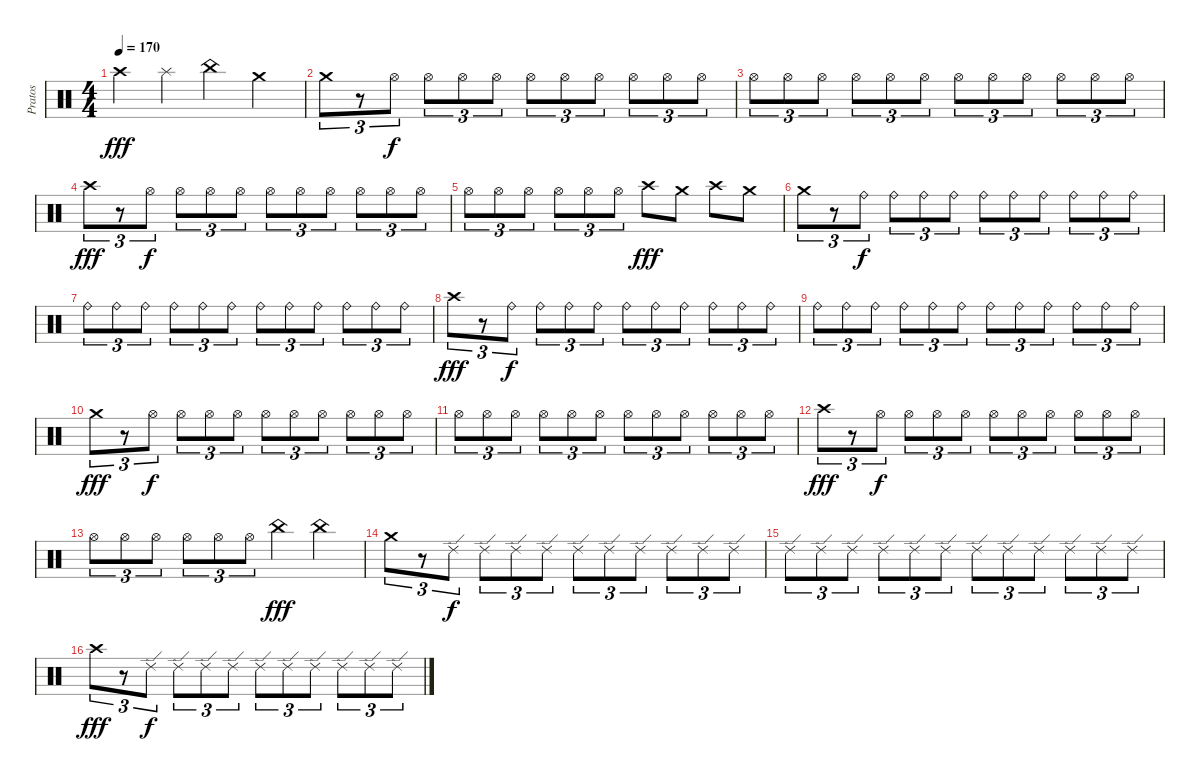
\track ("Pratos" "Pratos") {instrument percussion}
\staff {score}
\articulation defaults
\ts (4 4)
\tempo 170
\clef neutral
\ks c "Crash high (hit)".4{dy fff} "Splash (hit)".4 "China (hit)".4 "Crash medium (hit)".4
|
"Crash medium (hit)".8{tu (3 2)} r.8{tu (3 2)} "Hi-Hat (open)".8{tu (3 2) dy f} "Hi-Hat (open)".8{tu (3 2)} "Hi-Hat (open)".8{tu (3 2)} "Hi-Hat (open)".8{tu (3 2)} "Hi-Hat (open)".8{tu (3 2)} "Hi-Hat (open)".8{tu (3 2)} "Hi-Hat (open)".8{tu (3 2)} "Hi-Hat (open)".8{tu (3 2)} "Hi-Hat (open)".8{tu (3 2)} "Hi-Hat (open)".8{tu (3 2)} |
"Hi-Hat (open)".8{tu (3 2)} "Hi-Hat (open)".8{tu (3 2)} "Hi-Hat (open)".8{tu (3 2)} "Hi-Hat (open)".8{tu (3 2)} "Hi-Hat (open)".8{tu (3 2)} "Hi-Hat (open)".8{tu (3 2)} "Hi-Hat (open)".8{tu (3 2)} "Hi-Hat (open)".8{tu (3 2)} "Hi-Hat (open)".8{tu (3 2)} "Hi-Hat (open)".8{tu (3 2)} "Hi-Hat (open)".8{tu (3 2)} "Hi-Hat (open)".8{tu (3 2)} |
"Crash high (hit)".8{tu (3 2) dy fff} r.8{tu (3 2)} "Hi-Hat (open)".8{tu (3 2) dy f} "Hi-Hat (open)".8{tu (3 2)} "Hi-Hat (open)".8{tu (3 2)} "Hi-Hat (open)".8{tu (3 2)} "Hi-Hat (open)".8{tu (3 2)} "Hi-Hat (open)".8{tu (3 2)} "Hi-Hat (open)".8{tu (3 2)} "Hi-Hat (open)".8{tu (3 2)} "Hi-Hat (open)".8{tu (3 2)} "Hi-Hat (open)".8{tu (3 2)} |
"Hi-Hat (open)".8{tu (3 2)} "Hi-Hat (open)".8{tu (3 2)} "Hi-Hat (open)".8{tu (3 2)} "Hi-Hat (open)".8{tu (3 2)} "Hi-Hat (open)".8{tu (3 2)} "Hi-Hat (open)".8{tu (3 2)} "Crash high (hit)".8{dy fff} "Crash medium (hit)".8 "Crash high (hit)".8 "Crash medium (hit)".8 |
"Crash medium (hit)".8{tu (3 2)} r.8{tu (3 2)} "Ride (bell)".8{tu (3 2) dy f} "Ride (bell)".8{tu (3 2)} "Ride (bell)".8{tu (3 2)} "Ride (bell)".8{tu (3 2)} "Ride (bell)".8{tu (3 2)} "Ride (bell)".8{tu (3 2)} "Ride (bell)".8{tu (3 2)} "Ride (bell)".8{tu (3 2)} "Ride (bell)".8{tu (3 2)} "Ride (bell)".8{tu (3 2)} |
"Ride (bell)".8{tu (3 2)} "Ride (bell)".8{tu (3 2)} "Ride (bell)".8{tu (3 2)} "Ride (bell)".8{tu (3 2)} "Ride (bell)".8{tu (3 2)} "Ride (bell)".8{tu (3 2)} "Ride (bell)".8{tu (3 2)} "Ride (bell)".8{tu (3 2)} "Ride (bell)".8{tu (3 2)} "Ride (bell)".8{tu (3 2)} "Ride (bell)".8{tu (3 2)} "Ride (bell)".8{tu (3 2)} |
"Crash high (hit)".8{tu (3 2) dy fff} r.8{tu (3 2)} "Ride (bell)".8{tu (3 2) dy f} "Ride (bell)".8{tu (3 2)} "Ride (bell)".8{tu (3 2)} "Ride (bell)".8{tu (3 2)} "Ride (bell)".8{tu (3 2)} "Ride (bell)".8{tu (3 2)} "Ride (bell)".8{tu (3 2)} "Ride (bell)".8{tu (3 2)} "Ride (bell)".8{tu (3 2)} "Ride (bell)".8{tu (3 2)} |
"Ride (bell)".8{tu (3 2)} "Ride (bell)".8{tu (3 2)} "Ride (bell)".8{tu (3 2)} "Ride (bell)".8{tu (3 2)} "Ride (bell)".8{tu (3 2)} "Ride (bell)".8{tu (3 2)} "Ride (bell)".8{tu (3 2)} "Ride (bell)".8{tu (3 2)} "Ride (bell)".8{tu (3 2)} "Ride (bell)".8{tu (3 2)} "Ride (bell)".8{tu (3 2)} "Ride (bell)".8{tu (3 2)} |
"Crash medium (hit)".8{tu (3 2) dy fff} r.8{tu (3 2)} "Hi-Hat (open)".8{tu (3 2) dy f} "Hi-Hat (open)".8{tu (3 2)} "Hi-Hat (open)".8{tu (3 2)} "Hi-Hat (open)".8{tu (3 2)} "Hi-Hat (open)".8{tu (3 2)} "Hi-Hat (open)".8{tu (3 2)} "Hi-Hat (open)".8{tu (3 2)} "Hi-Hat (open)".8{tu (3 2)} "Hi-Hat (open)".8{tu (3 2)} "Hi-Hat (open)".8{tu (3 2)} |
"Hi-Hat (open)".8{tu (3 2)} "Hi-Hat (open)".8{tu (3 2)} "Hi-Hat (open)".8{tu (3 2)} "Hi-Hat (open)".8{tu (3 2)} "Hi-Hat (open)".8{tu (3 2)} "Hi-Hat (open)".8{tu (3 2)} "Hi-Hat (open)".8{tu (3 2)} "Hi-Hat (open)".8{tu (3 2)} "Hi-Hat (open)".8{tu (3 2)} "Hi-Hat (open)".8{tu (3 2)} "Hi-Hat (open)".8{tu (3 2)} "Hi-Hat (open)".8{tu (3 2)} |
"Crash high (hit)".8{tu (3 2) dy fff} r.8{tu (3 2)} "Hi-Hat (open)".8{tu (3 2) dy f} "Hi-Hat (open)".8{tu (3 2)} "Hi-Hat (open)".8{tu (3 2)} "Hi-Hat (open)".8{tu (3 2)} "Hi-Hat (open)".8{tu (3 2)} "Hi-Hat (open)".8{tu (3 2)} "Hi-Hat (open)".8{tu (3 2)} "Hi-Hat (open)".8{tu (3 2)} "Hi-Hat (open)".8{tu (3 2)} "Hi-Hat (open)".8{tu (3 2)} |
"Hi-Hat (open)".8{tu (3 2)} "Hi-Hat (open)".8{tu (3 2)} "Hi-Hat (open)".8{tu (3 2)} "Hi-Hat (open)".8{tu (3 2)} "Hi-Hat (open)".8{tu (3 2)} "Hi-Hat (open)".8{tu (3 2)} "China (hit)".4{dy fff} "China (hit)".4 |
"Crash medium (hit)".8{tu (3 2)} r.8{tu (3 2)} "Ride (edge) 2".8{tu (3 2) dy f} "Ride (edge) 2".8{tu (3 2)} "Ride (edge) 2".8{tu (3 2)} "Ride (edge) 2".8{tu (3 2)} "Ride (edge) 2".8{tu (3 2)} "Ride (edge) 2".8{tu (3 2)} "Ride (edge) 2".8{tu (3 2)} "Ride (edge) 2".8{tu (3 2)} "Ride (edge) 2".8{tu (3 2)} "Ride (edge) 2".8{tu (3 2)} |
"Ride (edge) 2".8{tu (3 2)} "Ride (edge) 2".8{tu (3 2)} "Ride (edge) 2".8{tu (3 2)} "Ride (edge) 2".8{tu (3 2)} "Ride (edge) 2".8{tu (3 2)} "Ride (edge) 2".8{tu (3 2)} "Ride (edge) 2".8{tu (3 2)} "Ride (edge) 2".8{tu (3 2)} "Ride (edge) 2".8{tu (3 2)} "Ride (edge) 2".8{tu (3 2)} "Ride (edge) 2".8{tu (3 2)} "Ride (edge) 2".8{tu (3 2)} |
"Crash high (hit)".8{tu (3 2) dy fff} r.8{tu (3 2)} "Ride (edge) 2".8{tu (3 2) dy f} "Ride (edge) 2".8{tu (3 2)} "Ride (edge) 2".8{tu (3 2)} "Ride (edge) 2".8{tu (3 2)} "Ride (edge) 2".8{tu (3 2)} "Ride (edge) 2".8{tu (3 2)} "Ride (edge) 2".8{tu (3 2)} "Ride (edge) 2".8{tu (3 2)} "Ride (edge) 2".8{tu (3 2)} "Ride (edge) 2".8{tu (3 2)}
